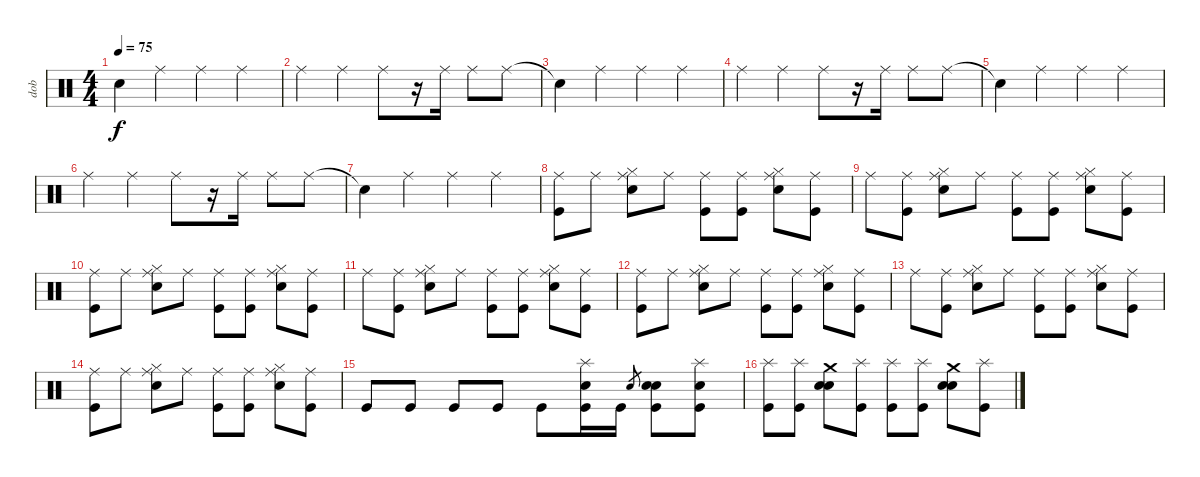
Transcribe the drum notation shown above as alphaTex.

\track ("dob" "dob") {instrument percussion}
\staff {score}
\articulation defaults
\ts (4 4)
\tempo 75
\clef neutral
\ks c "Snare (hit)"{t}.4{dy f} "Ride (middle)".4 "Ride (middle)".4 "Ride (middle)".4
|
"Ride (middle)".4 "Ride (middle)".4 "Ride (middle)".8 r.16 "Ride (middle)".16 "Ride (middle)".8 "Ride (middle)".8 |
"Snare (hit)"{t}.4 "Ride (middle)".4 "Ride (middle)".4 "Ride (middle)".4 |
"Ride (middle)".4 "Ride (middle)".4 "Ride (middle)".8 r.16 "Ride (middle)".16 "Ride (middle)".8 "Ride (middle)".8 |
"Snare (hit)"{t}.4 "Ride (middle)".4 "Ride (middle)".4 "Ride (middle)".4 |
"Ride (middle)".4 "Ride (middle)".4 "Ride (middle)".8 r.16 "Ride (middle)".16 "Ride (middle)".8 "Ride (middle)".8 |
"Snare (hit)"{t}.4 "Ride (middle)".4 "Ride (middle)".4 "Ride (middle)".4 |
("Ride (middle)" "Kick (hit)").8 "Ride (middle)".8 ("Ride (middle)" "Hi-Hat (closed)" "Electric Snare (hit)").8 "Ride (middle)".8 ("Ride (middle)" "Kick (hit)").8 ("Ride (middle)" "Kick (hit)").8 ("Ride (middle)" "Hi-Hat (closed)" "Electric Snare (hit)").8 ("Ride (middle)" "Kick (hit)").8 |
"Ride (middle)".8 ("Ride (middle)" "Kick (hit)").8 ("Ride (middle)" "Hi-Hat (closed)" "Electric Snare (hit)").8 "Ride (middle)".8 ("Ride (middle)" "Kick (hit)").8 ("Ride (middle)" "Kick (hit)").8 ("Ride (middle)" "Hi-Hat (closed)" "Electric Snare (hit)").8 ("Ride (middle)" "Kick (hit)").8 |
("Ride (middle)" "Kick (hit)").8 "Ride (middle)".8 ("Ride (middle)" "Hi-Hat (closed)" "Electric Snare (hit)").8 "Ride (middle)".8 ("Ride (middle)" "Kick (hit)").8 ("Ride (middle)" "Kick (hit)").8 ("Ride (middle)" "Hi-Hat (closed)" "Electric Snare (hit)").8 ("Ride (middle)" "Kick (hit)").8 |
"Ride (middle)".8 ("Ride (middle)" "Kick (hit)").8 ("Ride (middle)" "Hi-Hat (closed)" "Electric Snare (hit)").8 "Ride (middle)".8 ("Ride (middle)" "Kick (hit)").8 ("Ride (middle)" "Kick (hit)").8 ("Ride (middle)" "Hi-Hat (closed)" "Electric Snare (hit)").8 ("Ride (middle)" "Kick (hit)").8 |
("Ride (middle)" "Kick (hit)").8 "Ride (middle)".8 ("Ride (middle)" "Hi-Hat (closed)" "Electric Snare (hit)").8 "Ride (middle)".8 ("Ride (middle)" "Kick (hit)").8 ("Ride (middle)" "Kick (hit)").8 ("Ride (middle)" "Hi-Hat (closed)" "Electric Snare (hit)").8 ("Ride (middle)" "Kick (hit)").8 |
"Ride (middle)".8 ("Ride (middle)" "Kick (hit)").8 ("Ride (middle)" "Hi-Hat (closed)" "Electric Snare (hit)").8 "Ride (middle)".8 ("Ride (middle)" "Kick (hit)").8 ("Ride (middle)" "Kick (hit)").8 ("Ride (middle)" "Hi-Hat (closed)" "Electric Snare (hit)").8 ("Ride (middle)" "Kick (hit)").8 |
("Ride (middle)" "Kick (hit)").8 "Ride (middle)".8 ("Ride (middle)" "Hi-Hat (closed)" "Electric Snare (hit)").8 "Ride (middle)".8 ("Ride (middle)" "Kick (hit)").8 ("Ride (middle)" "Kick (hit)").8 ("Ride (middle)" "Hi-Hat (closed)" "Electric Snare (hit)").8 ("Ride (middle)" "Kick (hit)").8 |
"Kick (hit)".8 "Kick (hit)".8 "Kick (hit)".8 "Kick (hit)".8 "Kick (hit)".8 ("Splash (hit)" "Electric Snare (hit)" "Kick (hit)").16 "Kick (hit)".16 "Snare (hit) 2".8{gr} ("Snare (hit) 2" "Electric Snare (hit)" "Kick (hit)").8 ("Splash (hit)" "Electric Snare (hit)" "Kick (hit)").8 |
("Splash (hit)" "Kick (hit)").8 ("Splash (hit)" "Kick (hit)").8 ("Crash medium (hit)" "Snare (hit) 2" "Electric Snare (hit)").8 ("Splash (hit)" "Kick (hit)").8 ("Splash (hit)" "Kick (hit)").8 ("Splash (hit)" "Kick (hit)").8 ("Crash medium (hit)" "Snare (hit) 2" "Electric Snare (hit)").8 ("Splash (hit)" "Kick (hit)").8
